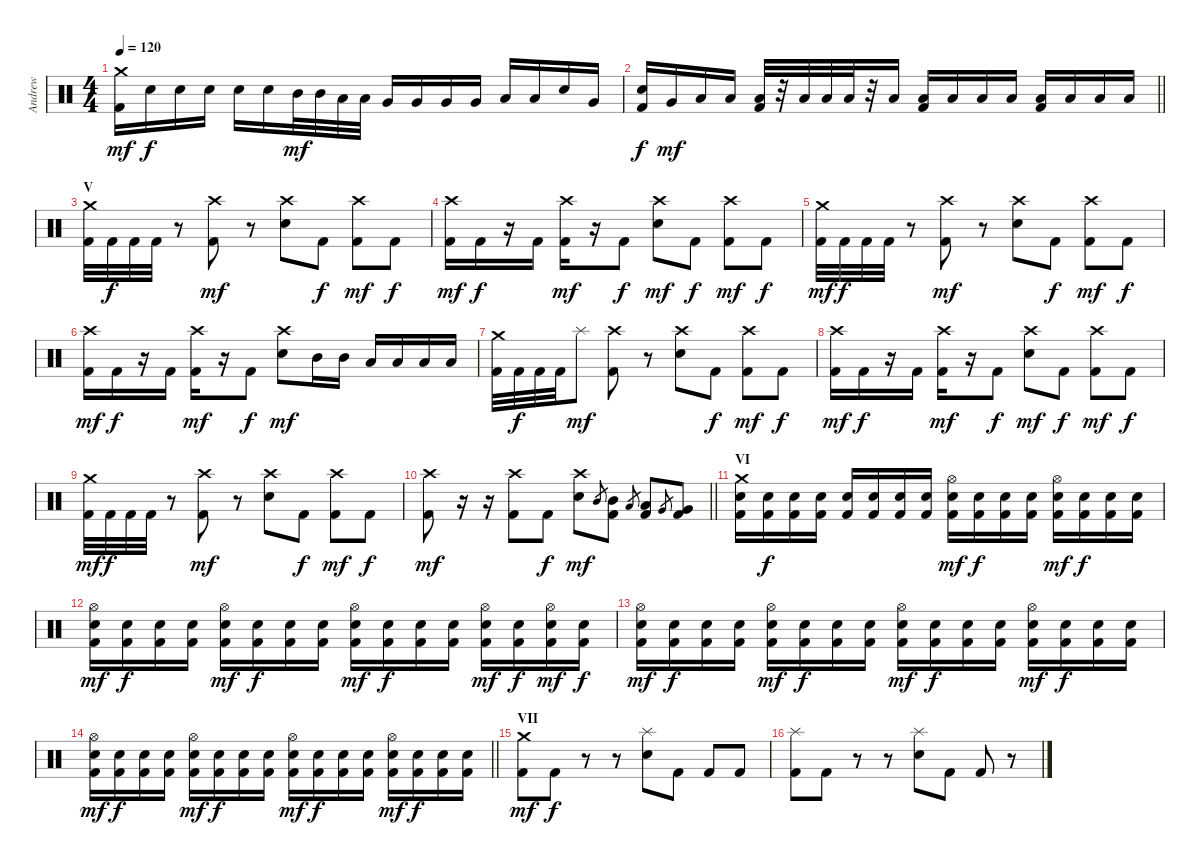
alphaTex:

\track ("Andrew" "Andrew") {instrument percussion}
\staff {score}
\articulation defaults
\ts (4 4)
\tempo 120
\clef neutral
\ks c
("Crash medium (hit)" "Kick (hit) 2").16{dy mf} "Electric Snare (hit)".16{dy f} "Electric Snare (hit)".16 "Electric Snare (hit)".16 "Electric Snare (hit)".16 "Electric Snare (hit)".16 "Mid Tom (hit)".32{dy mf} "Mid Tom (hit)".32 "Low Tom (hit)".32 "Low Tom (hit)".32 "Very Low Tom (hit)".16 "Very Low Tom (hit)".16 "Very Low Tom (hit)".16 "Very Low Tom (hit)".16 "Low Floor Tom (hit)".16 "Low Floor Tom (hit)".16 "Electric Snare (hit)".16 "Very Low Tom (hit)".16 |
\barLineRight lightlight
("Electric Snare (hit)" "Kick (hit) 2").16{dy f} "Very Low Tom (hit)".16{dy mf} "Low Floor Tom (hit)".16 "Low Floor Tom (hit)".16 ("Low Floor Tom (hit)" "Kick (hit) 2").32 r.32 "Low Floor Tom (hit)".32 "Low Floor Tom (hit)".32 "Low Floor Tom (hit)".32 r.32 "Low Floor Tom (hit)".16 ("Low Floor Tom (hit)" "Kick (hit) 2").16 "Low Floor Tom (hit)".16 "Low Floor Tom (hit)".16 "Low Floor Tom (hit)".16 ("Low Floor Tom (hit)" "Kick (hit) 2").16 "Low Floor Tom (hit)".16 "Low Floor Tom (hit)".16 "Low Floor Tom (hit)".16 |
\section ("" "V")
("Crash medium (hit)" "Kick (hit) 2").32 "Kick (hit) 2".32{dy f} "Kick (hit) 2".32 "Kick (hit) 2".32 r.8 ("Crash high (hit)" "Kick (hit) 2").8{dy mf} r.8 ("Crash high (hit)" "Electric Snare (hit)").8 "Kick (hit) 2".8{dy f} ("Crash high (hit)" "Kick (hit) 2").8{dy mf} "Kick (hit) 2".8{dy f} |
("Crash high (hit)" "Kick (hit) 2").16{dy mf} "Kick (hit) 2".16{dy f} r.16 "Kick (hit) 2".16 ("Crash high (hit)" "Kick (hit) 2").16{dy mf} r.16 "Kick (hit) 2".8{dy f} ("Crash high (hit)" "Electric Snare (hit)").8{dy mf} "Kick (hit) 2".8{dy f} ("Crash high (hit)" "Kick (hit) 2").8{dy mf} "Kick (hit) 2".8{dy f} |
("Crash medium (hit)" "Kick (hit) 2").32{dy mf} "Kick (hit) 2".32{dy f} "Kick (hit) 2".32 "Kick (hit) 2".32 r.8 ("Crash high (hit)" "Kick (hit) 2").8{dy mf} r.8 ("Crash high (hit)" "Electric Snare (hit)").8 "Kick (hit) 2".8{dy f} ("Crash high (hit)" "Kick (hit) 2").8{dy mf} "Kick (hit) 2".8{dy f} |
("Crash high (hit)" "Kick (hit) 2").16{dy mf} "Kick (hit) 2".16{dy f} r.16 "Kick (hit) 2".16 ("Crash high (hit)" "Kick (hit) 2").16{dy mf} r.16 "Kick (hit) 2".8{dy f} ("Crash high (hit)" "Electric Snare (hit)").8{dy mf} "Mid Tom (hit)".16 "Mid Tom (hit)".16 "Low Tom (hit)".16 "Low Tom (hit)".16 "Low Tom (hit)".16 "Low Tom (hit)".16 |
("Crash medium (hit)" "Kick (hit) 2").32 "Kick (hit) 2".32{dy f} "Kick (hit) 2".32 "Kick (hit) 2".32 "Splash (hit)".8{dy mf} ("Crash high (hit)" "Kick (hit) 2").8 r.8 ("Crash high (hit)" "Electric Snare (hit)").8 "Kick (hit) 2".8{dy f} ("Crash high (hit)" "Kick (hit) 2").8{dy mf} "Kick (hit) 2".8{dy f} |
("Crash high (hit)" "Kick (hit) 2").16{dy mf} "Kick (hit) 2".16{dy f} r.16 "Kick (hit) 2".16 ("Crash high (hit)" "Kick (hit) 2").16{dy mf} r.16 "Kick (hit) 2".8{dy f} ("Crash high (hit)" "Electric Snare (hit)").8{dy mf} "Kick (hit) 2".8{dy f} ("Crash high (hit)" "Kick (hit) 2").8{dy mf} "Kick (hit) 2".8{dy f} |
("Crash medium (hit)" "Kick (hit) 2").32{dy mf} "Kick (hit) 2".32{dy f} "Kick (hit) 2".32 "Kick (hit) 2".32 r.8 ("Crash high (hit)" "Kick (hit) 2").8{dy mf} r.8 ("Crash high (hit)" "Electric Snare (hit)").8 "Kick (hit) 2".8{dy f} ("Crash high (hit)" "Kick (hit) 2").8{dy mf} "Kick (hit) 2".8{dy f} |
\barLineRight lightlight
("Crash high (hit)" "Kick (hit) 2").8{dy mf} r.16 r.16 ("Crash high (hit)" "Kick (hit) 2").8 "Kick (hit) 2".8{dy f} ("Crash high (hit)" "Electric Snare (hit)").8{dy mf} "Mid Tom (hit)".8{gr} ("Mid Tom (hit)" "Kick (hit) 2").8 "Low Tom (hit)".8{gr} ("Low Tom (hit)" "Kick (hit) 2").8 "Very Low Tom (hit)".8{gr} ("Very Low Tom (hit)" "Kick (hit) 2").8 |
\section ("" "VI")
("Crash medium (hit)" "Electric Snare (hit)" "Kick (hit) 2").16 ("Electric Snare (hit)" "Kick (hit) 2").16{dy f} ("Electric Snare (hit)" "Kick (hit) 2").16 ("Electric Snare (hit)" "Kick (hit) 2").16 ("Electric Snare (hit)" "Kick (hit) 2").16 ("Electric Snare (hit)" "Kick (hit) 2").16 ("Electric Snare (hit)" "Kick (hit) 2").16 ("Electric Snare (hit)" "Kick (hit) 2").16 ("Hi-Hat (open)" "Electric Snare (hit)" "Kick (hit) 2").16{dy mf} ("Electric Snare (hit)" "Kick (hit) 2").16{dy f} ("Electric Snare (hit)" "Kick (hit) 2").16 ("Electric Snare (hit)" "Kick (hit) 2").16 ("Hi-Hat (open)" "Electric Snare (hit)" "Kick (hit) 2").16{dy mf} ("Electric Snare (hit)" "Kick (hit) 2").16{dy f} ("Electric Snare (hit)" "Kick (hit) 2").16 ("Electric Snare (hit)" "Kick (hit) 2").16 |
("Hi-Hat (open)" "Electric Snare (hit)" "Kick (hit) 2").16{dy mf} ("Electric Snare (hit)" "Kick (hit) 2").16{dy f} ("Electric Snare (hit)" "Kick (hit) 2").16 ("Electric Snare (hit)" "Kick (hit) 2").16 ("Hi-Hat (open)" "Electric Snare (hit)" "Kick (hit) 2").16{dy mf} ("Electric Snare (hit)" "Kick (hit) 2").16{dy f} ("Electric Snare (hit)" "Kick (hit) 2").16 ("Electric Snare (hit)" "Kick (hit) 2").16 ("Hi-Hat (open)" "Electric Snare (hit)" "Kick (hit) 2").16{dy mf} ("Electric Snare (hit)" "Kick (hit) 2").16{dy f} ("Electric Snare (hit)" "Kick (hit) 2").16 ("Electric Snare (hit)" "Kick (hit) 2").16 ("Hi-Hat (open)" "Electric Snare (hit)" "Kick (hit) 2").16{dy mf} ("Electric Snare (hit)" "Kick (hit) 2").16{dy f} ("Hi-Hat (open)" "Electric Snare (hit)" "Kick (hit) 2").16{dy mf} ("Electric Snare (hit)" "Kick (hit) 2").16{dy f} |
("Hi-Hat (open)" "Electric Snare (hit)" "Kick (hit) 2").16{dy mf} ("Electric Snare (hit)" "Kick (hit) 2").16{dy f} ("Electric Snare (hit)" "Kick (hit) 2").16 ("Electric Snare (hit)" "Kick (hit) 2").16 ("Hi-Hat (open)" "Electric Snare (hit)" "Kick (hit) 2").16{dy mf} ("Electric Snare (hit)" "Kick (hit) 2").16{dy f} ("Electric Snare (hit)" "Kick (hit) 2").16 ("Electric Snare (hit)" "Kick (hit) 2").16 ("Hi-Hat (open)" "Electric Snare (hit)" "Kick (hit) 2").16{dy mf} ("Electric Snare (hit)" "Kick (hit) 2").16{dy f} ("Electric Snare (hit)" "Kick (hit) 2").16 ("Electric Snare (hit)" "Kick (hit) 2").16 ("Hi-Hat (open)" "Electric Snare (hit)" "Kick (hit) 2").16{dy mf} ("Electric Snare (hit)" "Kick (hit) 2").16{dy f} ("Electric Snare (hit)" "Kick (hit) 2").16 ("Electric Snare (hit)" "Kick (hit) 2").16 |
\barLineRight lightlight
("Hi-Hat (open)" "Electric Snare (hit)" "Kick (hit) 2").16{dy mf} ("Electric Snare (hit)" "Kick (hit) 2").16{dy f} ("Electric Snare (hit)" "Kick (hit) 2").16 ("Electric Snare (hit)" "Kick (hit) 2").16 ("Hi-Hat (open)" "Electric Snare (hit)" "Kick (hit) 2").16{dy mf} ("Electric Snare (hit)" "Kick (hit) 2").16{dy f} ("Electric Snare (hit)" "Kick (hit) 2").16 ("Electric Snare (hit)" "Kick (hit) 2").16 ("Hi-Hat (open)" "Electric Snare (hit)" "Kick (hit) 2").16{dy mf} ("Electric Snare (hit)" "Kick (hit) 2").16{dy f} ("Electric Snare (hit)" "Kick (hit) 2").16 ("Electric Snare (hit)" "Kick (hit) 2").16 ("Hi-Hat (open)" "Electric Snare (hit)" "Kick (hit) 2").16{dy mf} ("Electric Snare (hit)" "Kick (hit) 2").16{dy f} ("Electric Snare (hit)" "Kick (hit) 2").16 ("Electric Snare (hit)" "Kick (hit) 2").16 |
\section ("" "VII")
("Crash medium (hit)" "Kick (hit) 2").8{dy mf} "Kick (hit) 2".8{dy f} r.8 r.8 ("Splash (hit)" "Electric Snare (hit)").8 "Kick (hit) 2".8 "Kick (hit) 2".8 "Kick (hit) 2".8 |
("Splash (hit)" "Kick (hit) 2").8 "Kick (hit) 2".8 r.8 r.8 ("Splash (hit)" "Electric Snare (hit)").8 "Kick (hit) 2".8 "Kick (hit) 2".8 r.8
